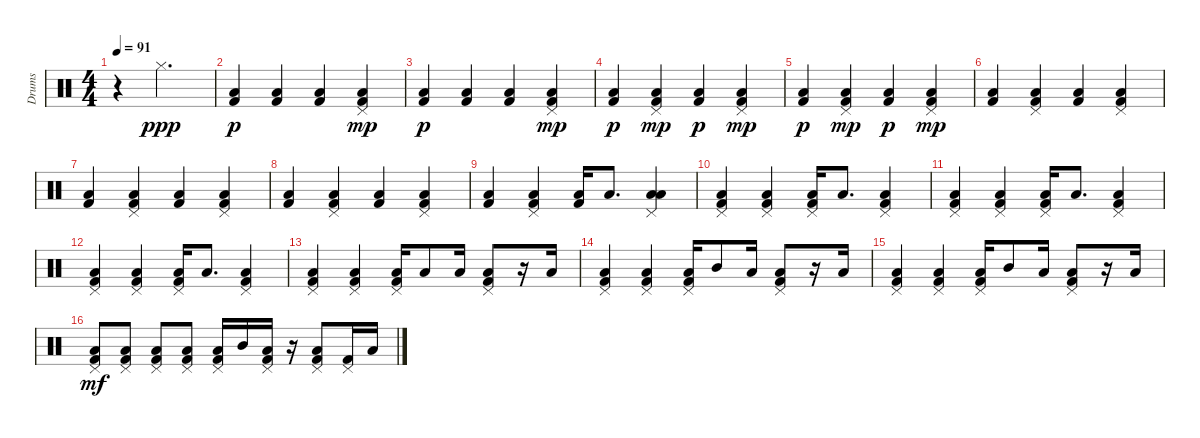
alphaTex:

\track ("Drums" "Drums") {instrument percussion}
\staff {score}
\articulation defaults
\ts (4 4)
\tempo 91
\clef neutral
\ks c
r.4{dy mf} "Hi-Hat (closed)".2{d dy ppp} |
("Low Floor Tom (hit)" "Kick (hit) 2").4{dy p} ("Low Floor Tom (hit)" "Kick (hit) 2").4 ("Low Floor Tom (hit)" "Kick (hit) 2").4 ("Low Floor Tom (hit)" "Kick (hit) 2" "Pedal Hi-Hat (hit)").4{dy mp} |
("Low Floor Tom (hit)" "Kick (hit) 2").4{dy p} ("Low Floor Tom (hit)" "Kick (hit) 2").4 ("Low Floor Tom (hit)" "Kick (hit) 2").4 ("Low Floor Tom (hit)" "Kick (hit) 2" "Pedal Hi-Hat (hit)").4{dy mp} |
("Low Floor Tom (hit)" "Kick (hit) 2").4{dy p} ("Low Floor Tom (hit)" "Kick (hit) 2" "Pedal Hi-Hat (hit)").4{dy mp} ("Low Floor Tom (hit)" "Kick (hit) 2").4{dy p} ("Low Floor Tom (hit)" "Kick (hit) 2" "Pedal Hi-Hat (hit)").4{dy mp} |
("Low Floor Tom (hit)" "Kick (hit) 2").4{dy p} ("Low Floor Tom (hit)" "Kick (hit) 2" "Pedal Hi-Hat (hit)").4{dy mp} ("Low Floor Tom (hit)" "Kick (hit) 2").4{dy p} ("Low Floor Tom (hit)" "Kick (hit) 2" "Pedal Hi-Hat (hit)").4{dy mp} |
("Low Floor Tom (hit)" "Kick (hit) 2").4 ("Low Floor Tom (hit)" "Kick (hit) 2" "Pedal Hi-Hat (hit)").4 ("Low Floor Tom (hit)" "Kick (hit) 2").4 ("Low Floor Tom (hit)" "Kick (hit) 2" "Pedal Hi-Hat (hit)").4 |
("Low Floor Tom (hit)" "Kick (hit) 2").4 ("Low Floor Tom (hit)" "Kick (hit) 2" "Pedal Hi-Hat (hit)").4 ("Low Floor Tom (hit)" "Kick (hit) 2").4 ("Low Floor Tom (hit)" "Kick (hit) 2" "Pedal Hi-Hat (hit)").4 |
("Low Floor Tom (hit)" "Kick (hit) 2").4 ("Low Floor Tom (hit)" "Kick (hit) 2" "Pedal Hi-Hat (hit)").4 ("Low Floor Tom (hit)" "Kick (hit) 2").4 ("Low Floor Tom (hit)" "Kick (hit) 2" "Pedal Hi-Hat (hit)").4 |
("Low Floor Tom (hit)" "Kick (hit) 2").4 ("Low Floor Tom (hit)" "Kick (hit) 2" "Pedal Hi-Hat (hit)").4 ("Low Floor Tom (hit)" "Kick (hit) 2").16 "Low Floor Tom (hit)".8{d} ("Low Floor Tom (hit)" "Low Floor Tom (hit)" "Pedal Hi-Hat (hit)").4 |
("Low Floor Tom (hit)" "Kick (hit) 2" "Pedal Hi-Hat (hit)").4 ("Low Floor Tom (hit)" "Kick (hit) 2" "Pedal Hi-Hat (hit)").4 ("Low Floor Tom (hit)" "Kick (hit) 2" "Pedal Hi-Hat (hit)").16 "Low Floor Tom (hit)".8{d} ("Low Floor Tom (hit)" "Kick (hit) 2" "Pedal Hi-Hat (hit)").4 |
("Low Floor Tom (hit)" "Kick (hit) 2" "Pedal Hi-Hat (hit)").4 ("Low Floor Tom (hit)" "Kick (hit) 2" "Pedal Hi-Hat (hit)").4 ("Low Floor Tom (hit)" "Kick (hit) 2" "Pedal Hi-Hat (hit)").16 "Low Floor Tom (hit)".8{d} ("Low Floor Tom (hit)" "Kick (hit) 2" "Pedal Hi-Hat (hit)").4 |
("Low Floor Tom (hit)" "Kick (hit) 2" "Pedal Hi-Hat (hit)").4 ("Low Floor Tom (hit)" "Kick (hit) 2" "Pedal Hi-Hat (hit)").4 ("Low Floor Tom (hit)" "Kick (hit) 2" "Pedal Hi-Hat (hit)").16 "Low Floor Tom (hit)".8{d} ("Low Floor Tom (hit)" "Kick (hit) 2" "Pedal Hi-Hat (hit)").4 |
("Kick (hit) 2" "Low Floor Tom (hit)" "Pedal Hi-Hat (hit)").4 ("Kick (hit) 2" "Low Floor Tom (hit)" "Pedal Hi-Hat (hit)").4 ("Kick (hit) 2" "Low Floor Tom (hit)" "Pedal Hi-Hat (hit)").16 "Low Floor Tom (hit)".8 "Low Floor Tom (hit)".16 ("Kick (hit) 2" "Low Floor Tom (hit)" "Pedal Hi-Hat (hit)").8 r.16 "Low Floor Tom (hit)".16 |
("Kick (hit) 2" "Low Floor Tom (hit)" "Pedal Hi-Hat (hit)").4 ("Kick (hit) 2" "Low Floor Tom (hit)" "Pedal Hi-Hat (hit)").4 ("Kick (hit) 2" "Low Floor Tom (hit)" "Pedal Hi-Hat (hit)").16 "Mid Tom (hit)".8 "Low Floor Tom (hit)".16 ("Kick (hit) 2" "Low Tom (hit)" "Pedal Hi-Hat (hit)").8 r.16 "Low Floor Tom (hit)".16 |
("Kick (hit) 2" "Low Floor Tom (hit)" "Pedal Hi-Hat (hit)").4 ("Kick (hit) 2" "Low Floor Tom (hit)" "Pedal Hi-Hat (hit)").4 ("Kick (hit) 2" "Low Floor Tom (hit)" "Pedal Hi-Hat (hit)").16 "Mid Tom (hit)".8 "Low Floor Tom (hit)".16 ("Kick (hit) 2" "Low Tom (hit)" "Pedal Hi-Hat (hit)").8 r.16 "Low Floor Tom (hit)".16 |
("Kick (hit) 2" "Low Floor Tom (hit)" "Pedal Hi-Hat (hit)").8{dy mf} ("Kick (hit) 2" "Low Floor Tom (hit)" "Pedal Hi-Hat (hit)").8 ("Kick (hit) 2" "Low Floor Tom (hit)" "Pedal Hi-Hat (hit)").8 ("Kick (hit) 2" "Low Floor Tom (hit)" "Pedal Hi-Hat (hit)").8 ("Kick (hit) 2" "Low Floor Tom (hit)" "Pedal Hi-Hat (hit)").16 "Mid Tom (hit)".16 ("Kick (hit) 2" "Low Floor Tom (hit)" "Pedal Hi-Hat (hit)").16 r.16 ("Kick (hit) 2" "Low Tom (hit)" "Pedal Hi-Hat (hit)").8 ("Kick (hit) 2" "Pedal Hi-Hat (hit)").16 "Low Floor Tom (hit)".16
